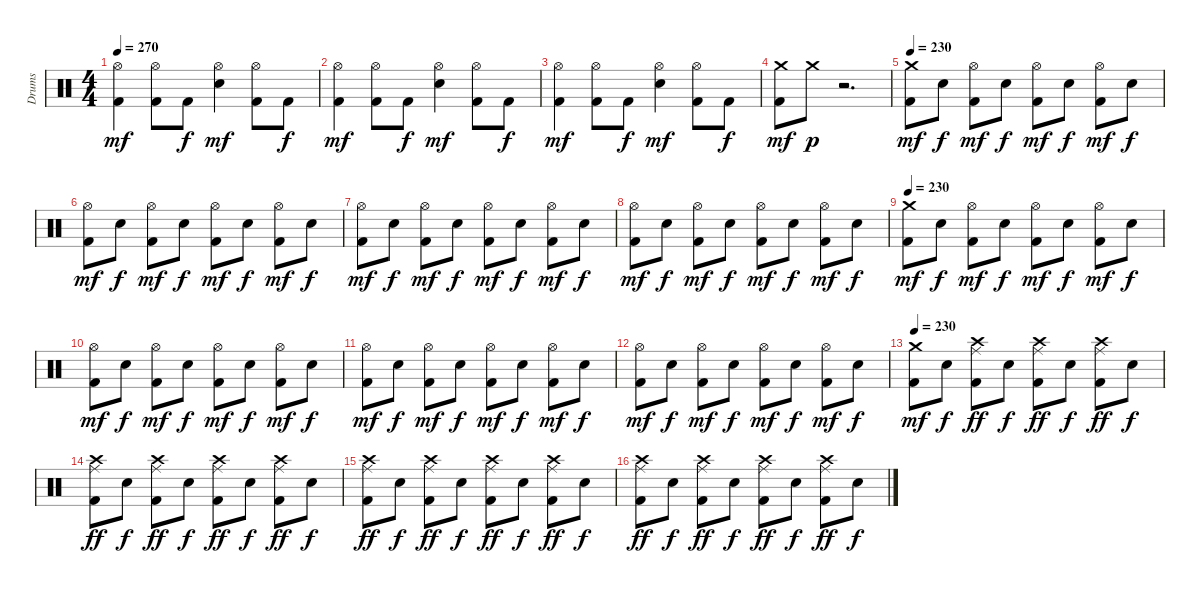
\track ("Drums" "Drums") {instrument percussion}
\staff {score}
\articulation defaults
\ts (4 4)
\tempo 270
\clef neutral
\ks c
("Hi-Hat (open)" "Kick (hit) 2").4{dy mf} ("Hi-Hat (open)" "Kick (hit) 2").8 "Kick (hit) 2".8{dy f} ("Hi-Hat (open)" "Snare (hit) 2").4{dy mf} ("Hi-Hat (open)" "Kick (hit) 2").8 "Kick (hit) 2".8{dy f} |
("Hi-Hat (open)" "Kick (hit) 2").4{dy mf} ("Hi-Hat (open)" "Kick (hit) 2").8 "Kick (hit) 2".8{dy f} ("Hi-Hat (open)" "Snare (hit) 2").4{dy mf} ("Hi-Hat (open)" "Kick (hit) 2").8 "Kick (hit) 2".8{dy f} |
("Hi-Hat (open)" "Kick (hit) 2").4{dy mf} ("Hi-Hat (open)" "Kick (hit) 2").8 "Kick (hit) 2".8{dy f} ("Hi-Hat (open)" "Snare (hit) 2").4{dy mf} ("Hi-Hat (open)" "Kick (hit) 2").8 "Kick (hit) 2".8{dy f} |
("Crash medium (hit)" "Kick (hit) 2").8{dy mf} "Crash medium (hit)".8{dy p} r.2{d} |
\tempo 230
("Crash medium (hit)" "Kick (hit) 2").8{dy mf} "Snare (hit) 2".8{dy f} ("Hi-Hat (open)" "Kick (hit) 2").8{dy mf} "Snare (hit) 2".8{dy f} ("Hi-Hat (open)" "Kick (hit) 2").8{dy mf} "Snare (hit) 2".8{dy f} ("Hi-Hat (open)" "Kick (hit) 2").8{dy mf} "Snare (hit) 2".8{dy f} |
("Hi-Hat (open)" "Kick (hit) 2").8{dy mf} "Snare (hit) 2".8{dy f} ("Hi-Hat (open)" "Kick (hit) 2").8{dy mf} "Snare (hit) 2".8{dy f} ("Hi-Hat (open)" "Kick (hit) 2").8{dy mf} "Snare (hit) 2".8{dy f} ("Hi-Hat (open)" "Kick (hit) 2").8{dy mf} "Snare (hit) 2".8{dy f} |
("Hi-Hat (open)" "Kick (hit) 2").8{dy mf} "Snare (hit) 2".8{dy f} ("Hi-Hat (open)" "Kick (hit) 2").8{dy mf} "Snare (hit) 2".8{dy f} ("Hi-Hat (open)" "Kick (hit) 2").8{dy mf} "Snare (hit) 2".8{dy f} ("Hi-Hat (open)" "Kick (hit) 2").8{dy mf} "Snare (hit) 2".8{dy f} |
("Hi-Hat (open)" "Kick (hit) 2").8{dy mf} "Snare (hit) 2".8{dy f} ("Hi-Hat (open)" "Kick (hit) 2").8{dy mf} "Snare (hit) 2".8{dy f} ("Hi-Hat (open)" "Kick (hit) 2").8{dy mf} "Snare (hit) 2".8{dy f} ("Hi-Hat (open)" "Kick (hit) 2").8{dy mf} "Snare (hit) 2".8{dy f} |
\tempo 230
("Crash medium (hit)" "Kick (hit) 2").8{dy mf} "Snare (hit) 2".8{dy f} ("Hi-Hat (open)" "Kick (hit) 2").8{dy mf} "Snare (hit) 2".8{dy f} ("Hi-Hat (open)" "Kick (hit) 2").8{dy mf} "Snare (hit) 2".8{dy f} ("Hi-Hat (open)" "Kick (hit) 2").8{dy mf} "Snare (hit) 2".8{dy f} |
("Hi-Hat (open)" "Kick (hit) 2").8{dy mf} "Snare (hit) 2".8{dy f} ("Hi-Hat (open)" "Kick (hit) 2").8{dy mf} "Snare (hit) 2".8{dy f} ("Hi-Hat (open)" "Kick (hit) 2").8{dy mf} "Snare (hit) 2".8{dy f} ("Hi-Hat (open)" "Kick (hit) 2").8{dy mf} "Snare (hit) 2".8{dy f} |
("Hi-Hat (open)" "Kick (hit) 2").8{dy mf} "Snare (hit) 2".8{dy f} ("Hi-Hat (open)" "Kick (hit) 2").8{dy mf} "Snare (hit) 2".8{dy f} ("Hi-Hat (open)" "Kick (hit) 2").8{dy mf} "Snare (hit) 2".8{dy f} ("Hi-Hat (open)" "Kick (hit) 2").8{dy mf} "Snare (hit) 2".8{dy f} |
("Hi-Hat (open)" "Kick (hit) 2").8{dy mf} "Snare (hit) 2".8{dy f} ("Hi-Hat (open)" "Kick (hit) 2").8{dy mf} "Snare (hit) 2".8{dy f} ("Hi-Hat (open)" "Kick (hit) 2").8{dy mf} "Snare (hit) 2".8{dy f} ("Hi-Hat (open)" "Kick (hit) 2").8{dy mf} "Snare (hit) 2".8{dy f} |
\tempo 230
("Crash medium (hit)" "Kick (hit) 2").8{dy mf} "Snare (hit) 2".8{dy f} ("Crash high (hit)" "Ride (middle)" "Kick (hit) 2").8{dy ff} "Snare (hit) 2".8{dy f} ("Crash high (hit)" "Ride (middle)" "Kick (hit) 2").8{dy ff} "Snare (hit) 2".8{dy f} ("Crash high (hit)" "Ride (middle)" "Kick (hit) 2").8{dy ff} "Snare (hit) 2".8{dy f} |
("Crash high (hit)" "Ride (middle)" "Kick (hit) 2").8{dy ff} "Snare (hit) 2".8{dy f} ("Crash high (hit)" "Ride (middle)" "Kick (hit) 2").8{dy ff} "Snare (hit) 2".8{dy f} ("Crash high (hit)" "Ride (middle)" "Kick (hit) 2").8{dy ff} "Snare (hit) 2".8{dy f} ("Crash high (hit)" "Ride (middle)" "Kick (hit) 2").8{dy ff} "Snare (hit) 2".8{dy f} |
("Crash high (hit)" "Ride (middle)" "Kick (hit) 2").8{dy ff} "Snare (hit) 2".8{dy f} ("Crash high (hit)" "Ride (middle)" "Kick (hit) 2").8{dy ff} "Snare (hit) 2".8{dy f} ("Crash high (hit)" "Ride (middle)" "Kick (hit) 2").8{dy ff} "Snare (hit) 2".8{dy f} ("Crash high (hit)" "Ride (middle)" "Kick (hit) 2").8{dy ff} "Snare (hit) 2".8{dy f} |
("Crash high (hit)" "Ride (middle)" "Kick (hit) 2").8{dy ff} "Snare (hit) 2".8{dy f} ("Crash high (hit)" "Ride (middle)" "Kick (hit) 2").8{dy ff} "Snare (hit) 2".8{dy f} ("Crash high (hit)" "Ride (middle)" "Kick (hit) 2").8{dy ff} "Snare (hit) 2".8{dy f} ("Crash high (hit)" "Ride (middle)" "Kick (hit) 2").8{dy ff} "Snare (hit) 2".8{dy f}
